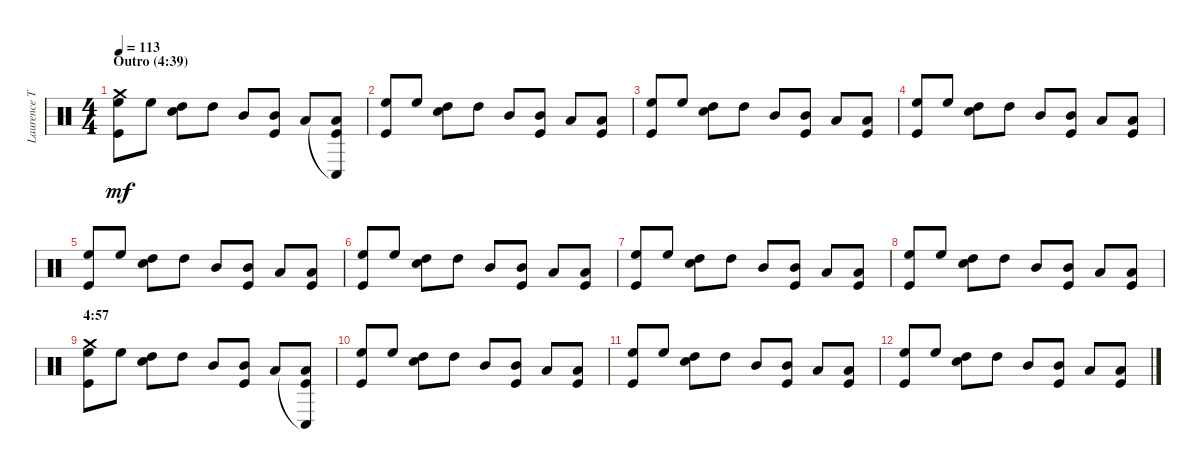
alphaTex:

\track ("Laurence Tolhurst (drums)" "Laurence T") {instrument percussion}
\staff {score}
\articulation defaults
\ts (4 4)
\section ("" "Outro (4:39)")
\tempo 113
\clef neutral
\ks c
("Crash medium (hit)" "High Floor Tom (hit)" "Kick (hit)").8{dy mf volume 10} "High Floor Tom (hit)".8 ("High Tom (hit)" "Snare (hit) 2").8 "High Tom (hit)".8 "Mid Tom (hit)".8 ("Mid Tom (hit)" "Kick (hit)").8 "Low Tom (hit)".8 ("Conga low (hit)"{t} "Low Tom (hit)" "Kick (hit)").8 |
("High Floor Tom (hit)" "Kick (hit)").8 "High Floor Tom (hit)".8 ("High Tom (hit)" "Snare (hit) 2").8 "High Tom (hit)".8 "Mid Tom (hit)".8 ("Mid Tom (hit)" "Kick (hit)").8 "Low Tom (hit)".8 ("Low Tom (hit)" "Kick (hit)").8 |
("High Floor Tom (hit)" "Kick (hit)").8{volume 8} "High Floor Tom (hit)".8 ("High Tom (hit)" "Snare (hit) 2").8 "High Tom (hit)".8 "Mid Tom (hit)".8 ("Mid Tom (hit)" "Kick (hit)").8 "Low Tom (hit)".8 ("Low Tom (hit)" "Kick (hit)").8 |
("High Floor Tom (hit)" "Kick (hit)").8 "High Floor Tom (hit)".8 ("High Tom (hit)" "Snare (hit) 2").8 "High Tom (hit)".8 "Mid Tom (hit)".8 ("Mid Tom (hit)" "Kick (hit)").8 "Low Tom (hit)".8 ("Low Tom (hit)" "Kick (hit)").8 |
("High Floor Tom (hit)" "Kick (hit)").8{volume 6} "High Floor Tom (hit)".8 ("High Tom (hit)" "Snare (hit) 2").8 "High Tom (hit)".8 "Mid Tom (hit)".8 ("Mid Tom (hit)" "Kick (hit)").8 "Low Tom (hit)".8 ("Low Tom (hit)" "Kick (hit)").8 |
("High Floor Tom (hit)" "Kick (hit)").8 "High Floor Tom (hit)".8 ("High Tom (hit)" "Snare (hit) 2").8 "High Tom (hit)".8 "Mid Tom (hit)".8 ("Mid Tom (hit)" "Kick (hit)").8 "Low Tom (hit)".8 ("Low Tom (hit)" "Kick (hit)").8 |
("High Floor Tom (hit)" "Kick (hit)").8{volume 4} "High Floor Tom (hit)".8 ("High Tom (hit)" "Snare (hit) 2").8 "High Tom (hit)".8 "Mid Tom (hit)".8 ("Mid Tom (hit)" "Kick (hit)").8 "Low Tom (hit)".8 ("Low Tom (hit)" "Kick (hit)").8 |
("High Floor Tom (hit)" "Kick (hit)").8 "High Floor Tom (hit)".8 ("High Tom (hit)" "Snare (hit) 2").8 "High Tom (hit)".8 "Mid Tom (hit)".8 ("Mid Tom (hit)" "Kick (hit)").8 "Low Tom (hit)".8 ("Low Tom (hit)" "Kick (hit)").8 |
\section ("" "4:57")
("Crash medium (hit)" "High Floor Tom (hit)" "Kick (hit)").8{volume 2} "High Floor Tom (hit)".8 ("High Tom (hit)" "Snare (hit) 2").8 "High Tom (hit)".8 "Mid Tom (hit)".8 ("Mid Tom (hit)" "Kick (hit)").8 "Low Tom (hit)".8 ("Conga low (hit)"{t} "Low Tom (hit)" "Kick (hit)").8 |
("High Floor Tom (hit)" "Kick (hit)").8 "High Floor Tom (hit)".8 ("High Tom (hit)" "Snare (hit) 2").8 "High Tom (hit)".8 "Mid Tom (hit)".8 ("Mid Tom (hit)" "Kick (hit)").8 "Low Tom (hit)".8 ("Low Tom (hit)" "Kick (hit)").8 |
("High Floor Tom (hit)" "Kick (hit)").8{volume 0} "High Floor Tom (hit)".8 ("High Tom (hit)" "Snare (hit) 2").8 "High Tom (hit)".8 "Mid Tom (hit)".8 ("Mid Tom (hit)" "Kick (hit)").8 "Low Tom (hit)".8 ("Low Tom (hit)" "Kick (hit)").8 |
("High Floor Tom (hit)" "Kick (hit)").8 "High Floor Tom (hit)".8 ("High Tom (hit)" "Snare (hit) 2").8 "High Tom (hit)".8 "Mid Tom (hit)".8 ("Mid Tom (hit)" "Kick (hit)").8 "Low Tom (hit)".8 ("Low Tom (hit)" "Kick (hit)").8
